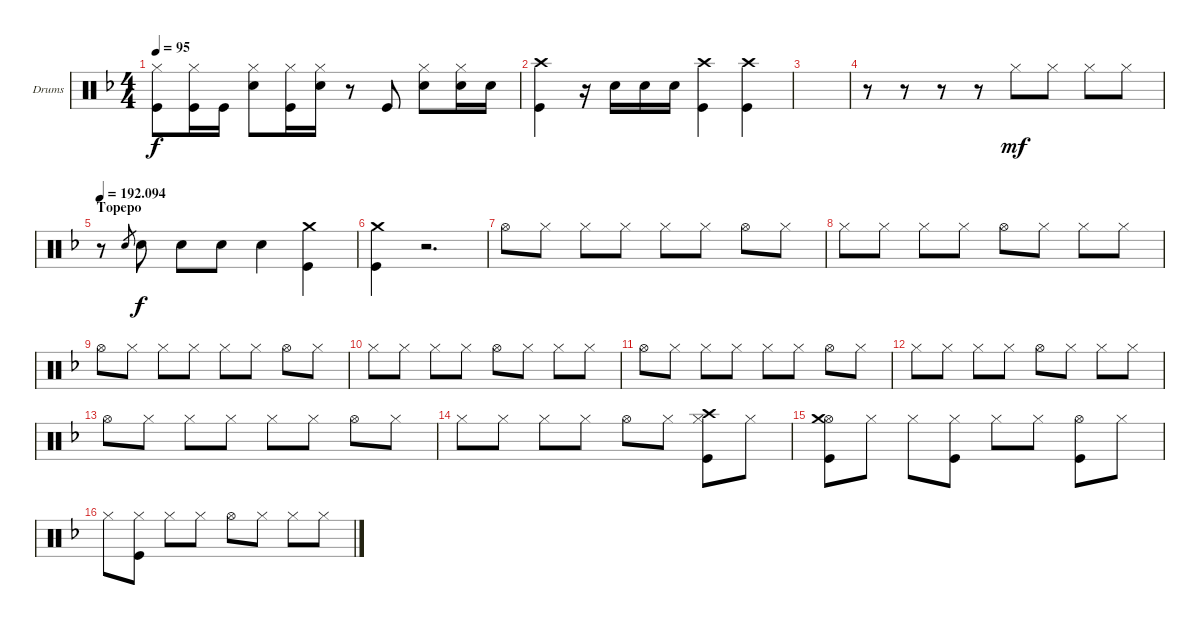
\bracketExtendMode groupsimilarinstruments
\firstSystemTrackNameOrientation horizontal
\otherSystemsTrackNameOrientation horizontal
\track ("Александр Манякин" "Drums") {instrument percussion}
\staff {score}
\articulation defaults
\ts (4 4)
\tempo 95
\clef neutral
\ks f
("Kick (hit)" "Hi-Hat (closed)").8{dy f} ("Kick (hit)" "Hi-Hat (closed)").16 "Kick (hit)".16 ("Snare (hit) 2" "Hi-Hat (closed)").8 ("Kick (hit)" "Hi-Hat (closed)").16 ("Snare (hit) 2" "Hi-Hat (closed)").16 r.8 "Kick (hit)".8 ("Snare (hit) 2" "Hi-Hat (closed)").8 ("Snare (hit) 2" "Hi-Hat (closed)").16 "Snare (hit) 2".16 |
("Kick (hit)" "Crash high (hit)").4 r.16 "Snare (hit) 2".16 "Snare (hit) 2".16 "Snare (hit) 2".16 ("Kick (hit)" "Crash high (hit)").4 ("Kick (hit)" "Crash high (hit)").4 |
|
r.8 r.8 r.8 r.8 "Hi-Hat (closed)".8{dy mf} "Hi-Hat (closed)".8 "Hi-Hat (closed)".8 "Hi-Hat (closed)".8 |
\section ("" "Тореро")
\tempo
192.094 r.8 "Snare (hit) 2".8{gr} "Snare (hit) 2".8{dy f} "Snare (hit) 2".8 "Snare (hit) 2".8 "Snare (hit) 2".4 ("Crash medium (hit)" "Kick (hit)").4 |
("Crash medium (hit)" "Kick (hit)").4 r.2{d} |
"Hi-Hat (open)".8 "Hi-Hat (closed)".8 "Hi-Hat (closed)".8 "Hi-Hat (closed)".8 "Hi-Hat (closed)".8 "Hi-Hat (closed)".8 "Hi-Hat (open)".8 "Hi-Hat (closed)".8 |
"Hi-Hat (closed)".8 "Hi-Hat (closed)".8 "Hi-Hat (closed)".8 "Hi-Hat (closed)".8 "Hi-Hat (open)".8 "Hi-Hat (closed)".8 "Hi-Hat (closed)".8 "Hi-Hat (closed)".8 |
"Hi-Hat (open)".8 "Hi-Hat (closed)".8 "Hi-Hat (closed)".8 "Hi-Hat (closed)".8 "Hi-Hat (closed)".8 "Hi-Hat (closed)".8 "Hi-Hat (open)".8 "Hi-Hat (closed)".8 |
"Hi-Hat (closed)".8 "Hi-Hat (closed)".8 "Hi-Hat (closed)".8 "Hi-Hat (closed)".8 "Hi-Hat (open)".8 "Hi-Hat (closed)".8 "Hi-Hat (closed)".8 "Hi-Hat (closed)".8 |
"Hi-Hat (open)".8 "Hi-Hat (closed)".8 "Hi-Hat (closed)".8 "Hi-Hat (closed)".8 "Hi-Hat (closed)".8 "Hi-Hat (closed)".8 "Hi-Hat (open)".8 "Hi-Hat (closed)".8 |
"Hi-Hat (closed)".8 "Hi-Hat (closed)".8 "Hi-Hat (closed)".8 "Hi-Hat (closed)".8 "Hi-Hat (open)".8 "Hi-Hat (closed)".8 "Hi-Hat (closed)".8 "Hi-Hat (closed)".8 |
"Hi-Hat (open)".8 "Hi-Hat (closed)".8 "Hi-Hat (closed)".8 "Hi-Hat (closed)".8 "Hi-Hat (closed)".8 "Hi-Hat (closed)".8 "Hi-Hat (open)".8 "Hi-Hat (closed)".8 |
"Hi-Hat (closed)".8 "Hi-Hat (closed)".8 "Hi-Hat (closed)".8 "Hi-Hat (closed)".8 "Hi-Hat (open)".8 "Hi-Hat (closed)".8 ("Hi-Hat (closed)" "Crash high (hit)" "Kick (hit)").8 "Hi-Hat (closed)".8 |
("Hi-Hat (open)" "Crash medium (hit)" "Kick (hit)").8 "Hi-Hat (closed)".8 "Hi-Hat (closed)".8 ("Hi-Hat (closed)" "Kick (hit)").8 "Hi-Hat (closed)".8 "Hi-Hat (closed)".8 ("Hi-Hat (open)" "Kick (hit)").8 "Hi-Hat (closed)".8 |
"Hi-Hat (closed)".8 ("Hi-Hat (closed)" "Kick (hit)").8 "Hi-Hat (closed)".8 "Hi-Hat (closed)".8 "Hi-Hat (open)".8 "Hi-Hat (closed)".8 "Hi-Hat (closed)".8 "Hi-Hat (closed)".8
